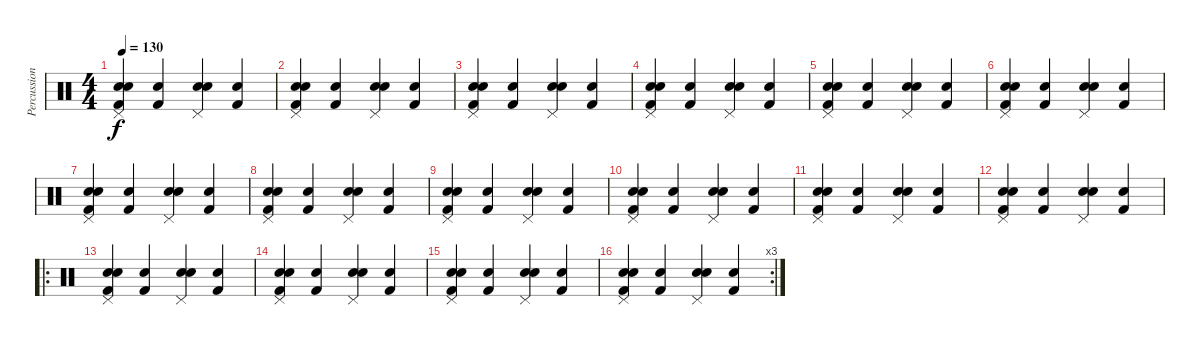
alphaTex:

\track ("Percussion" "Percussion") {instrument percussion}
\staff {score}
\articulation defaults
\ts (4 4)
\tempo 130
\clef neutral
\ks c
("Pedal Hi-Hat (hit)" "Snare (hit) 2" "Kick (hit) 2" "Snare (hit) 2").4{dy f volume 10} ("Kick (hit) 2" "Snare (hit) 2").4 ("Pedal Hi-Hat (hit)" "Snare (hit) 2" "Snare (hit) 2").4 ("Snare (hit) 2" "Kick (hit) 2").4 |
("Pedal Hi-Hat (hit)" "Snare (hit) 2" "Kick (hit) 2" "Snare (hit) 2").4{volume 10} ("Kick (hit) 2" "Snare (hit) 2").4 ("Pedal Hi-Hat (hit)" "Snare (hit) 2" "Snare (hit) 2").4 ("Snare (hit) 2" "Kick (hit) 2").4 |
("Pedal Hi-Hat (hit)" "Snare (hit) 2" "Kick (hit) 2" "Snare (hit) 2").4{volume 10} ("Kick (hit) 2" "Snare (hit) 2").4 ("Pedal Hi-Hat (hit)" "Snare (hit) 2" "Snare (hit) 2").4 ("Snare (hit) 2" "Kick (hit) 2").4 |
("Pedal Hi-Hat (hit)" "Snare (hit) 2" "Kick (hit) 2" "Snare (hit) 2").4{volume 10} ("Kick (hit) 2" "Snare (hit) 2").4 ("Pedal Hi-Hat (hit)" "Snare (hit) 2" "Snare (hit) 2").4 ("Snare (hit) 2" "Kick (hit) 2").4 |
("Pedal Hi-Hat (hit)" "Snare (hit) 2" "Kick (hit) 2" "Snare (hit) 2").4{volume 10} ("Kick (hit) 2" "Snare (hit) 2").4 ("Pedal Hi-Hat (hit)" "Snare (hit) 2" "Snare (hit) 2").4 ("Snare (hit) 2" "Kick (hit) 2").4 |
("Pedal Hi-Hat (hit)" "Snare (hit) 2" "Kick (hit) 2" "Snare (hit) 2").4{volume 10} ("Kick (hit) 2" "Snare (hit) 2").4 ("Pedal Hi-Hat (hit)" "Snare (hit) 2" "Snare (hit) 2").4 ("Snare (hit) 2" "Kick (hit) 2").4 |
("Pedal Hi-Hat (hit)" "Snare (hit) 2" "Kick (hit) 2" "Snare (hit) 2").4{volume 10} ("Kick (hit) 2" "Snare (hit) 2").4 ("Pedal Hi-Hat (hit)" "Snare (hit) 2" "Snare (hit) 2").4 ("Snare (hit) 2" "Kick (hit) 2").4 |
("Pedal Hi-Hat (hit)" "Snare (hit) 2" "Kick (hit) 2" "Snare (hit) 2").4{volume 10} ("Kick (hit) 2" "Snare (hit) 2").4 ("Pedal Hi-Hat (hit)" "Snare (hit) 2" "Snare (hit) 2").4 ("Snare (hit) 2" "Kick (hit) 2").4 |
("Pedal Hi-Hat (hit)" "Snare (hit) 2" "Kick (hit) 2" "Snare (hit) 2").4{volume 10} ("Kick (hit) 2" "Snare (hit) 2").4 ("Pedal Hi-Hat (hit)" "Snare (hit) 2" "Snare (hit) 2").4 ("Snare (hit) 2" "Kick (hit) 2").4 |
("Pedal Hi-Hat (hit)" "Snare (hit) 2" "Kick (hit) 2" "Snare (hit) 2").4{volume 10} ("Kick (hit) 2" "Snare (hit) 2").4 ("Pedal Hi-Hat (hit)" "Snare (hit) 2" "Snare (hit) 2").4 ("Snare (hit) 2" "Kick (hit) 2").4 |
("Pedal Hi-Hat (hit)" "Snare (hit) 2" "Kick (hit) 2" "Snare (hit) 2").4{volume 10} ("Kick (hit) 2" "Snare (hit) 2").4 ("Pedal Hi-Hat (hit)" "Snare (hit) 2" "Snare (hit) 2").4 ("Snare (hit) 2" "Kick (hit) 2").4 |
("Pedal Hi-Hat (hit)" "Snare (hit) 2" "Kick (hit) 2" "Snare (hit) 2").4{volume 10} ("Kick (hit) 2" "Snare (hit) 2").4 ("Pedal Hi-Hat (hit)" "Snare (hit) 2" "Snare (hit) 2").4 ("Snare (hit) 2" "Kick (hit) 2").4 |
\ro
("Pedal Hi-Hat (hit)" "Snare (hit) 2" "Kick (hit) 2" "Snare (hit) 2").4{volume 10} ("Kick (hit) 2" "Snare (hit) 2").4 ("Pedal Hi-Hat (hit)" "Snare (hit) 2" "Snare (hit) 2").4 ("Snare (hit) 2" "Kick (hit) 2").4 |
("Pedal Hi-Hat (hit)" "Snare (hit) 2" "Kick (hit) 2" "Snare (hit) 2").4{volume 10} ("Kick (hit) 2" "Snare (hit) 2").4 ("Pedal Hi-Hat (hit)" "Snare (hit) 2" "Snare (hit) 2").4 ("Snare (hit) 2" "Kick (hit) 2").4 |
("Pedal Hi-Hat (hit)" "Snare (hit) 2" "Kick (hit) 2" "Snare (hit) 2").4{volume 10} ("Kick (hit) 2" "Snare (hit) 2").4 ("Pedal Hi-Hat (hit)" "Snare (hit) 2" "Snare (hit) 2").4 ("Snare (hit) 2" "Kick (hit) 2").4 |
\rc 3
("Pedal Hi-Hat (hit)" "Snare (hit) 2" "Kick (hit) 2" "Snare (hit) 2").4{volume 10} ("Kick (hit) 2" "Snare (hit) 2").4 ("Pedal Hi-Hat (hit)" "Snare (hit) 2" "Snare (hit) 2").4 ("Snare (hit) 2" "Kick (hit) 2").4
